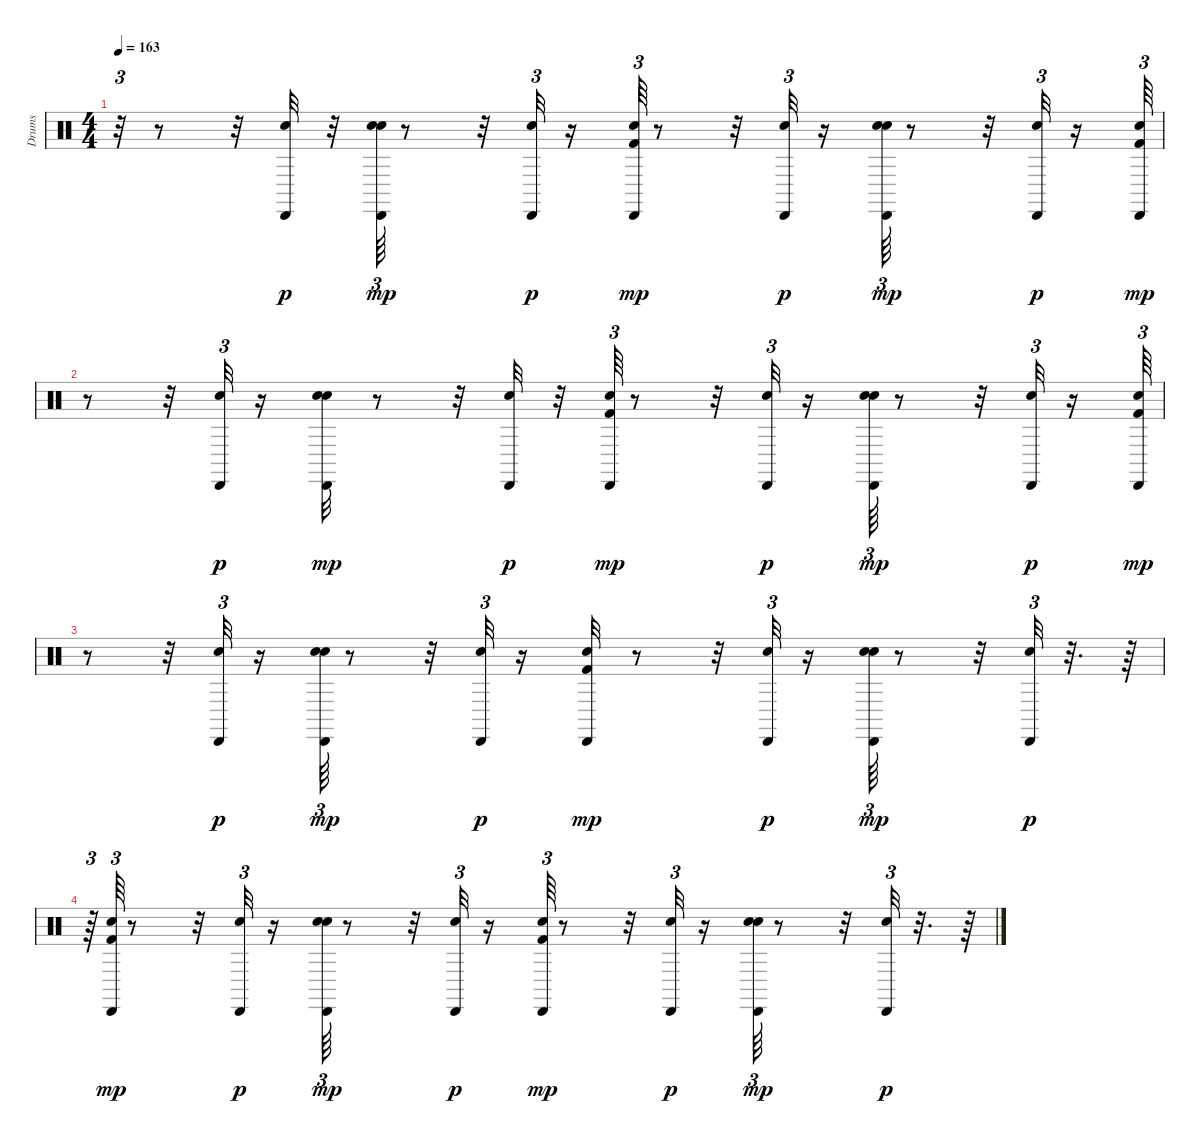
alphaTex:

\track ("Drums               " "Drums     ") {instrument percussion}
\staff {score}
\articulation defaults
\ts (4 4)
\tempo 163
\clef neutral
\ks c
r.32{tu (3 2) dy mp} r.8 r.32 ("Snare (hit) 2" "Cabasa (hit)").32{dy p} r.32 ("Snare (hit) 2" "Hand Clap (hit)" "Cabasa (hit)").64{tu (3 2) dy mp} r.8 r.32 ("Snare (hit) 2" "Cabasa (hit)").32{tu (3 2) dy p} r.16 ("Kick (hit) 2" "Snare (hit) 2" "Cabasa (hit)").64{tu (3 2) dy mp} r.8 r.32 ("Snare (hit) 2" "Cabasa (hit)").32{tu (3 2) dy p} r.16 ("Snare (hit) 2" "Hand Clap (hit)" "Cabasa (hit)").64{tu (3 2) dy mp} r.8 r.32 ("Snare (hit) 2" "Cabasa (hit)").32{tu (3 2) dy p} r.16 ("Kick (hit) 2" "Snare (hit) 2" "Cabasa (hit)").64{tu (3 2) dy mp} |
r.8 r.32 ("Snare (hit) 2" "Cabasa (hit)").32{tu (3 2) dy p} r.16 ("Snare (hit) 2" "Hand Clap (hit)" "Cabasa (hit)").32{dy mp} r.8 r.32 ("Snare (hit) 2" "Cabasa (hit)").32{dy p} r.32 ("Kick (hit) 2" "Snare (hit) 2" "Cabasa (hit)").64{tu (3 2) dy mp} r.8 r.32 ("Snare (hit) 2" "Cabasa (hit)").32{tu (3 2) dy p} r.16 ("Snare (hit) 2" "Hand Clap (hit)" "Cabasa (hit)").64{tu (3 2) dy mp} r.8 r.32 ("Snare (hit) 2" "Cabasa (hit)").32{tu (3 2) dy p} r.16 ("Kick (hit) 2" "Snare (hit) 2" "Cabasa (hit)").64{tu (3 2) dy mp} |
r.8 r.32 ("Snare (hit) 2" "Cabasa (hit)").32{tu (3 2) dy p} r.16 ("Snare (hit) 2" "Hand Clap (hit)" "Cabasa (hit)").64{tu (3 2) dy mp} r.8 r.32 ("Snare (hit) 2" "Cabasa (hit)").32{tu (3 2) dy p} r.16 ("Kick (hit) 2" "Snare (hit) 2" "Cabasa (hit)").32{dy mp} r.8 r.32 ("Snare (hit) 2" "Cabasa (hit)").32{tu (3 2) dy p} r.16 ("Snare (hit) 2" "Hand Clap (hit)" "Cabasa (hit)").64{tu (3 2) dy mp} r.8 r.32 ("Snare (hit) 2" "Cabasa (hit)").32{tu (3 2) dy p} r.32{d} r.64 |
r.64{tu (3 2)} ("Kick (hit) 2" "Snare (hit) 2" "Cabasa (hit)").64{tu (3 2) dy mp} r.8 r.32 ("Snare (hit) 2" "Cabasa (hit)").32{tu (3 2) dy p} r.16 ("Snare (hit) 2" "Hand Clap (hit)" "Cabasa (hit)").64{tu (3 2) dy mp} r.8 r.32 ("Snare (hit) 2" "Cabasa (hit)").32{tu (3 2) dy p} r.16 ("Kick (hit) 2" "Snare (hit) 2" "Cabasa (hit)").64{tu (3 2) dy mp} r.8 r.32 ("Snare (hit) 2" "Cabasa (hit)").32{tu (3 2) dy p} r.16 ("Snare (hit) 2" "Hand Clap (hit)" "Cabasa (hit)").64{tu (3 2) dy mp} r.8 r.32 ("Snare (hit) 2" "Cabasa (hit)").32{tu (3 2) dy p} r.32{d} r.64
